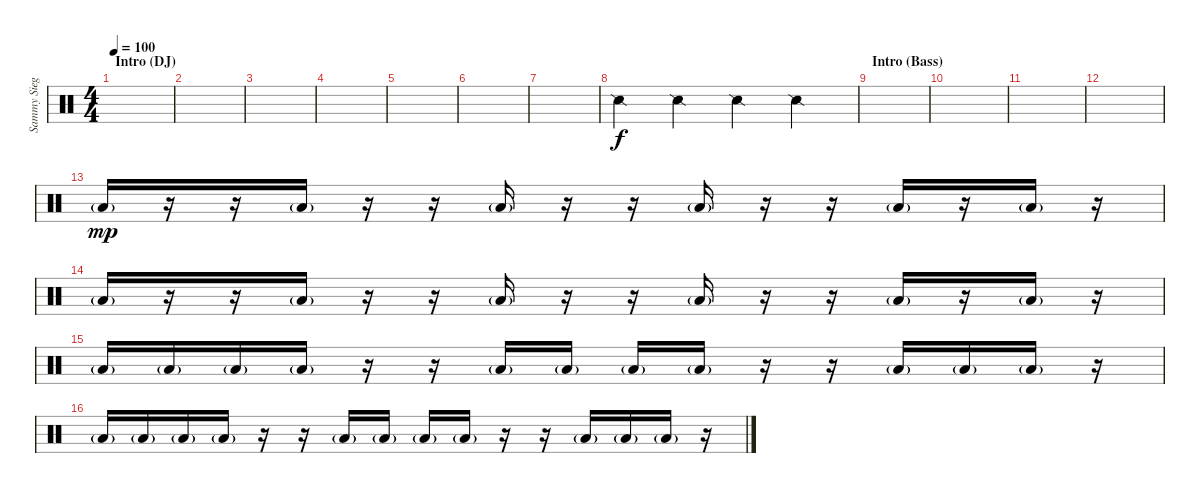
\track ("Sammy Siegler" "Sammy Sieg") {instrument percussion}
\staff {score}
\articulation defaults
\ts (4 4)
\section ("" "Intro (DJ)")
\tempo 100
\clef neutral
\ks c
|
|
|
|
|
|
|
"Snare (side stick) 2".4 "Snare (side stick) 2".4 "Snare (side stick) 2".4 "Snare (side stick) 2".4 |
\section ("" "Intro (Bass)")
|
|
|
|
"Low Tom (hit)"{g}.16{dy mp} r.16 r.16 "Low Tom (hit)"{g}.16 r.16 r.16 "Low Tom (hit)"{g}.16 r.16 r.16 "Low Tom (hit)"{g}.16 r.16 r.16 "Low Tom (hit)"{g}.16 r.16 "Low Tom (hit)"{g}.16 r.16 |
"Low Tom (hit)"{g}.16 r.16 r.16 "Low Tom (hit)"{g}.16 r.16 r.16 "Low Tom (hit)"{g}.16 r.16 r.16 "Low Tom (hit)"{g}.16 r.16 r.16 "Low Tom (hit)"{g}.16 r.16 "Low Tom (hit)"{g}.16 r.16 |
"Low Tom (hit)"{g}.16 "Low Floor Tom (hit)"{g}.16 "Low Floor Tom (hit)"{g}.16 "Low Tom (hit)"{g}.16 r.16 r.16 "Low Tom (hit)"{g}.16 "Low Floor Tom (hit)"{g}.16 "Low Floor Tom (hit)"{g}.16 "Low Tom (hit)"{g}.16 r.16 r.16 "Low Tom (hit)"{g}.16 "Low Floor Tom (hit)"{g}.16 "Low Tom (hit)"{g}.16 r.16 |
"Low Tom (hit)"{g}.16 "Low Floor Tom (hit)"{g}.16 "Low Floor Tom (hit)"{g}.16 "Low Tom (hit)"{g}.16 r.16 r.16 "Low Tom (hit)"{g}.16 "Low Floor Tom (hit)"{g}.16 "Low Floor Tom (hit)"{g}.16 "Low Tom (hit)"{g}.16 r.16 r.16 "Low Tom (hit)"{g}.16 "Low Floor Tom (hit)"{g}.16 "Low Tom (hit)"{g}.16 r.16
